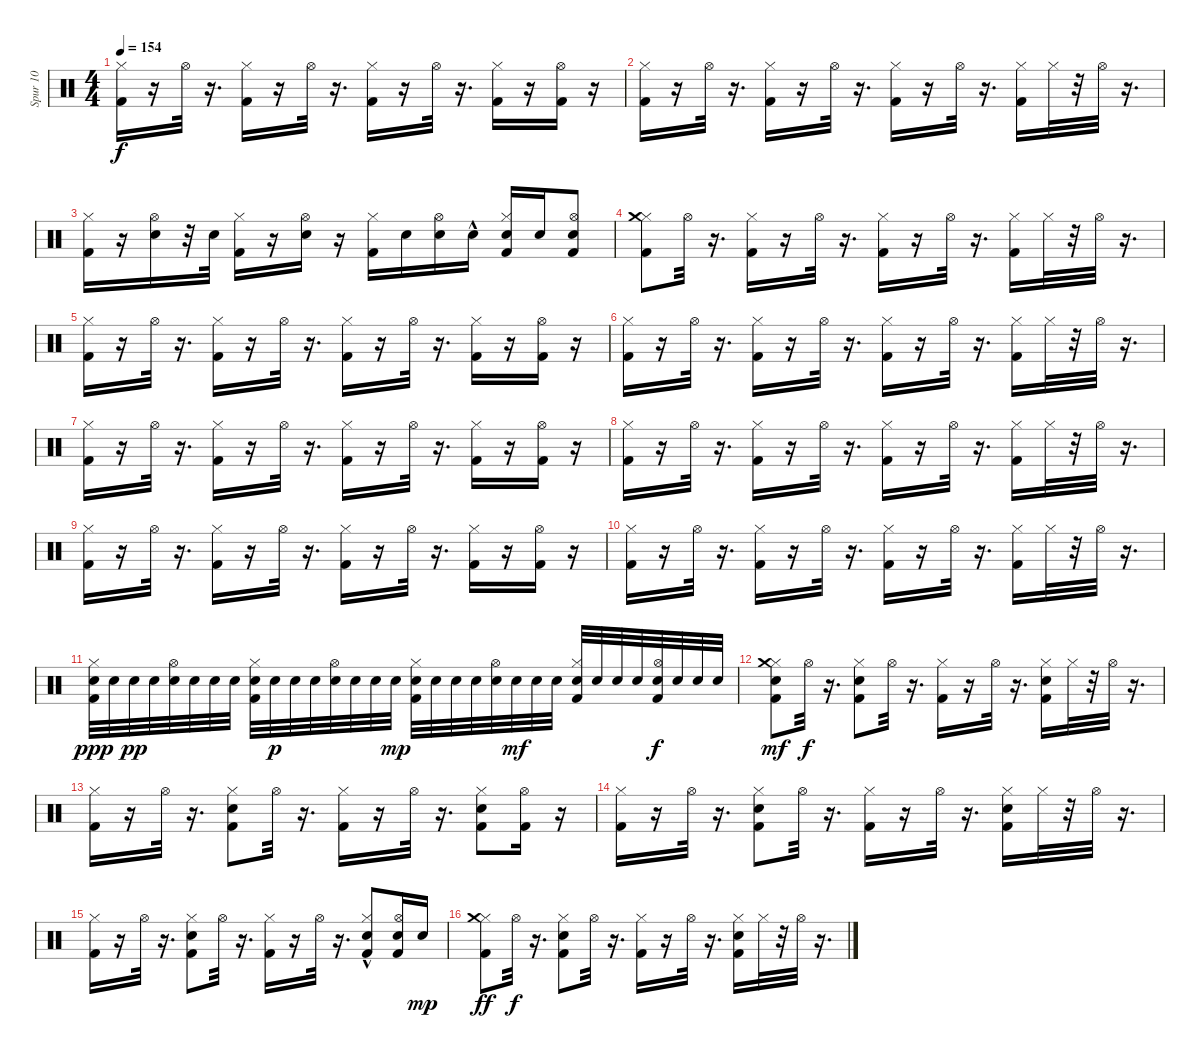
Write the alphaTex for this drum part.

\track ("Spur 10" "Spur 10") {instrument percussion}
\staff {score}
\articulation defaults
\ts (4 4)
\tempo 154
\clef neutral
\ks c
("Kick (hit) 2" "Hi-Hat (closed)").16{dy f} r.16 "Hi-Hat (open)".32 r.16{d} ("Kick (hit) 2" "Hi-Hat (closed)").16 r.16 "Hi-Hat (open)".32 r.16{d} ("Kick (hit) 2" "Hi-Hat (closed)").16 r.16 "Hi-Hat (open)".32 r.16{d} ("Kick (hit) 2" "Hi-Hat (closed)").16 r.16 ("Kick (hit) 2" "Hi-Hat (open)").16 r.16 |
("Kick (hit) 2" "Hi-Hat (closed)").16 r.16 "Hi-Hat (open)".32 r.16{d} ("Kick (hit) 2" "Hi-Hat (closed)").16 r.16 "Hi-Hat (open)".32 r.16{d} ("Kick (hit) 2" "Hi-Hat (closed)").16 r.16 "Hi-Hat (open)".32 r.16{d} ("Kick (hit) 2" "Hi-Hat (closed)").16 "Hi-Hat (closed)".32 r.32 "Hi-Hat (open)".32 r.16{d} |
("Kick (hit) 2" "Hi-Hat (closed)").16 r.16 ("Electric Snare (hit)" "Hi-Hat (open)").16 r.32 "Electric Snare (hit)".32 ("Kick (hit) 2" "Hi-Hat (closed)").16 r.16 ("Electric Snare (hit)" "Hi-Hat (open)").16 r.16 ("Kick (hit) 2" "Hi-Hat (closed)").16 "Snare (hit) 2".16 ("Electric Snare (hit)" "Hi-Hat (open)").16 "Snare (hit) 2"{hac}.16 ("Electric Snare (hit)" "Kick (hit) 2" "Hi-Hat (closed)").16 "Snare (hit) 2".16 ("Electric Snare (hit)" "Kick (hit) 2" "Hi-Hat (open)").8 |
("Kick (hit) 2" "Hi-Hat (closed)" "Crash medium (hit)").8 "Hi-Hat (open)".32 r.16{d} ("Kick (hit) 2" "Hi-Hat (closed)").16 r.16 "Hi-Hat (open)".32 r.16{d} ("Kick (hit) 2" "Hi-Hat (closed)").16 r.16 "Hi-Hat (open)".32 r.16{d} ("Kick (hit) 2" "Hi-Hat (closed)").16 "Hi-Hat (closed)".32 r.32 "Hi-Hat (open)".32 r.16{d} |
("Kick (hit) 2" "Hi-Hat (closed)").16 r.16 "Hi-Hat (open)".32 r.16{d} ("Kick (hit) 2" "Hi-Hat (closed)").16 r.16 "Hi-Hat (open)".32 r.16{d} ("Kick (hit) 2" "Hi-Hat (closed)").16 r.16 "Hi-Hat (open)".32 r.16{d} ("Kick (hit) 2" "Hi-Hat (closed)").16 r.16 ("Kick (hit) 2" "Hi-Hat (open)").16 r.16 |
("Kick (hit) 2" "Hi-Hat (closed)").16 r.16 "Hi-Hat (open)".32 r.16{d} ("Kick (hit) 2" "Hi-Hat (closed)").16 r.16 "Hi-Hat (open)".32 r.16{d} ("Kick (hit) 2" "Hi-Hat (closed)").16 r.16 "Hi-Hat (open)".32 r.16{d} ("Kick (hit) 2" "Hi-Hat (closed)").16 "Hi-Hat (closed)".32 r.32 "Hi-Hat (open)".32 r.16{d} |
("Kick (hit) 2" "Hi-Hat (closed)").16 r.16 "Hi-Hat (open)".32 r.16{d} ("Kick (hit) 2" "Hi-Hat (closed)").16 r.16 "Hi-Hat (open)".32 r.16{d} ("Kick (hit) 2" "Hi-Hat (closed)").16 r.16 "Hi-Hat (open)".32 r.16{d} ("Kick (hit) 2" "Hi-Hat (closed)").16 r.16 ("Kick (hit) 2" "Hi-Hat (open)").16 r.16 |
("Kick (hit) 2" "Hi-Hat (closed)").16 r.16 "Hi-Hat (open)".32 r.16{d} ("Kick (hit) 2" "Hi-Hat (closed)").16 r.16 "Hi-Hat (open)".32 r.16{d} ("Kick (hit) 2" "Hi-Hat (closed)").16 r.16 "Hi-Hat (open)".32 r.16{d} ("Kick (hit) 2" "Hi-Hat (closed)").16 "Hi-Hat (closed)".32 r.32 "Hi-Hat (open)".32 r.16{d} |
("Kick (hit) 2" "Hi-Hat (closed)").16 r.16 "Hi-Hat (open)".32 r.16{d} ("Kick (hit) 2" "Hi-Hat (closed)").16 r.16 "Hi-Hat (open)".32 r.16{d} ("Kick (hit) 2" "Hi-Hat (closed)").16 r.16 "Hi-Hat (open)".32 r.16{d} ("Kick (hit) 2" "Hi-Hat (closed)").16 r.16 ("Kick (hit) 2" "Hi-Hat (open)").16 r.16 |
("Kick (hit) 2" "Hi-Hat (closed)").16 r.16 "Hi-Hat (open)".32 r.16{d} ("Kick (hit) 2" "Hi-Hat (closed)").16 r.16 "Hi-Hat (open)".32 r.16{d} ("Kick (hit) 2" "Hi-Hat (closed)").16 r.16 "Hi-Hat (open)".32 r.16{d} ("Kick (hit) 2" "Hi-Hat (closed)").16 "Hi-Hat (closed)".32 r.32 "Hi-Hat (open)".32 r.16{d} |
("Kick (hit) 2" "Electric Snare (hit)" "Hi-Hat (closed)").32{dy ppp} "Electric Snare (hit)".32 "Electric Snare (hit)".32{dy pp} "Electric Snare (hit)".32 ("Electric Snare (hit)" "Hi-Hat (open)").32 "Electric Snare (hit)".32 "Electric Snare (hit)".32 "Electric Snare (hit)".32 ("Kick (hit) 2" "Electric Snare (hit)" "Hi-Hat (closed)").32 "Electric Snare (hit)".32{dy p} "Electric Snare (hit)".32 "Electric Snare (hit)".32 ("Electric Snare (hit)" "Hi-Hat (open)").32 "Electric Snare (hit)".32 "Electric Snare (hit)".32 "Electric Snare (hit)".32{dy mp} ("Kick (hit) 2" "Electric Snare (hit)" "Hi-Hat (closed)").32 "Electric Snare (hit)".32 "Electric Snare (hit)".32 "Electric Snare (hit)".32 ("Electric Snare (hit)" "Hi-Hat (open)").32 "Electric Snare (hit)".32{dy mf} "Electric Snare (hit)".32 "Electric Snare (hit)".32 ("Kick (hit) 2" "Electric Snare (hit)" "Hi-Hat (closed)").32 "Electric Snare (hit)".32 "Electric Snare (hit)".32 "Electric Snare (hit)".32 ("Kick (hit) 2" "Electric Snare (hit)" "Hi-Hat (open)").32{dy f} "Electric Snare (hit)".32 "Electric Snare (hit)".32 "Electric Snare (hit)".32 |
("Kick (hit) 2" "Snare (hit) 2" "Hi-Hat (closed)" "Crash medium (hit)").8{dy mf} "Hi-Hat (open)".32{dy f} r.16{d} ("Kick (hit) 2" "Snare (hit) 2" "Hi-Hat (closed)").8 "Hi-Hat (open)".32 r.16{d} ("Kick (hit) 2" "Hi-Hat (closed)").16 r.16 "Hi-Hat (open)".32 r.16{d} ("Kick (hit) 2" "Snare (hit) 2" "Hi-Hat (closed)").16 "Hi-Hat (closed)".32 r.32 "Hi-Hat (open)".32 r.16{d} |
("Kick (hit) 2" "Hi-Hat (closed)").16 r.16 "Hi-Hat (open)".32 r.16{d} ("Kick (hit) 2" "Snare (hit) 2" "Hi-Hat (closed)").8 "Hi-Hat (open)".32 r.16{d} ("Kick (hit) 2" "Hi-Hat (closed)").16 r.16 "Hi-Hat (open)".32 r.16{d} ("Kick (hit) 2" "Snare (hit) 2" "Hi-Hat (closed)").8 ("Kick (hit) 2" "Hi-Hat (open)").16 r.16 |
("Kick (hit) 2" "Hi-Hat (closed)").16 r.16 "Hi-Hat (open)".32 r.16{d} ("Kick (hit) 2" "Snare (hit) 2" "Hi-Hat (closed)").8 "Hi-Hat (open)".32 r.16{d} ("Kick (hit) 2" "Hi-Hat (closed)").16 r.16 "Hi-Hat (open)".32 r.16{d} ("Kick (hit) 2" "Snare (hit) 2" "Hi-Hat (closed)").16 "Hi-Hat (closed)".32 r.32 "Hi-Hat (open)".32 r.16{d} |
("Kick (hit) 2" "Hi-Hat (closed)").16 r.16 "Hi-Hat (open)".32 r.16{d} ("Kick (hit) 2" "Snare (hit) 2" "Hi-Hat (closed)").8 "Hi-Hat (open)".32 r.16{d} ("Kick (hit) 2" "Hi-Hat (closed)").16 r.16 "Hi-Hat (open)".32 r.16{d} ("Kick (hit) 2" "Snare (hit) 2"{hac} "Hi-Hat (closed)").8 ("Electric Snare (hit)" "Kick (hit) 2" "Hi-Hat (open)").16 "Snare (hit) 2".16{dy mp} |
("Kick (hit) 2" "Hi-Hat (closed)" "Crash medium (hit)").8{dy ff} "Hi-Hat (open)".32{dy f} r.16{d} ("Kick (hit) 2" "Snare (hit) 2" "Hi-Hat (closed)").8 "Hi-Hat (open)".32 r.16{d} ("Kick (hit) 2" "Hi-Hat (closed)").16 r.16 "Hi-Hat (open)".32 r.16{d} ("Kick (hit) 2" "Snare (hit) 2" "Hi-Hat (closed)").16 "Hi-Hat (closed)".32 r.32 "Hi-Hat (open)".32 r.16{d}
